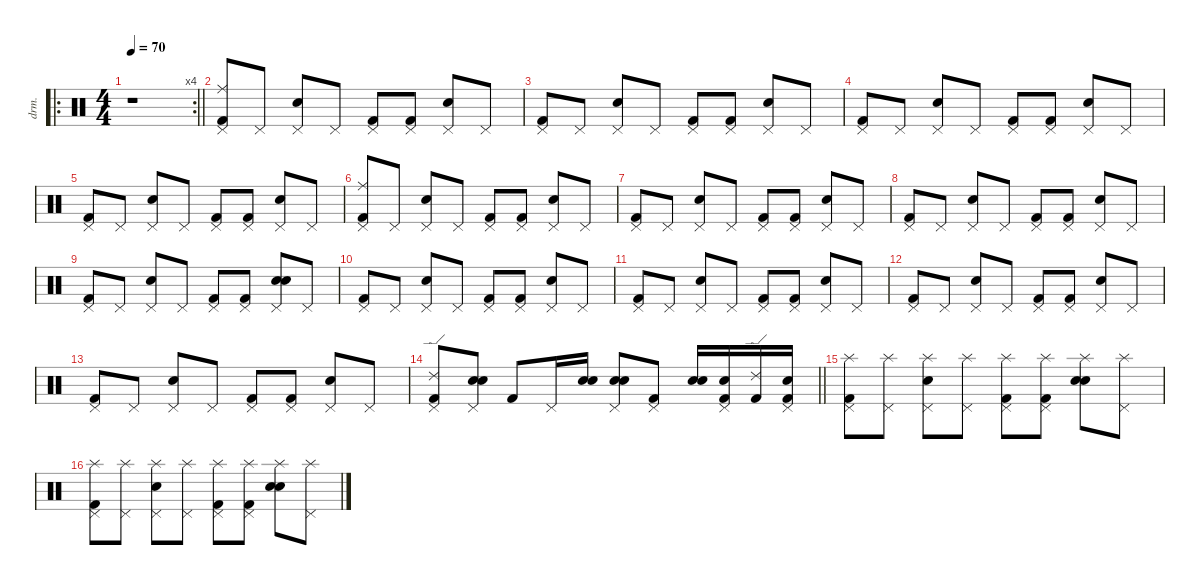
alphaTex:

\defaultSystemsLayout 4
\hideDynamics
\bracketExtendMode nobrackets
\otherSystemsTrackNameOrientation horizontal
\track ("Drums" "drm.") {defaultSystemsLayout 4 instrument percussion}
\staff {score}
\articulation defaults
\ro
\rc 4
\ts (4 4)
\beaming (8 2 2 2 2)
\tempo 70
\clef neutral
\barLineRight lightlight
\ks c
r.1{dy f beam Down} |
("Pedal Hi-Hat (hit)" "Ride (middle)" "Kick (hit) 2").8{beam Up} "Pedal Hi-Hat (hit)".8{beam Up} ("Pedal Hi-Hat (hit)" "Snare (hit) 2").8{beam Up} "Pedal Hi-Hat (hit)".8{beam Up} ("Pedal Hi-Hat (hit)" "Kick (hit) 2").8{beam Up} ("Pedal Hi-Hat (hit)" "Kick (hit) 2").8{beam Up} ("Pedal Hi-Hat (hit)" "Snare (hit) 2").8{beam Up} "Pedal Hi-Hat (hit)".8{beam Up} |
("Pedal Hi-Hat (hit)" "Kick (hit) 2").8{beam Up} "Pedal Hi-Hat (hit)".8{beam Up} ("Pedal Hi-Hat (hit)" "Snare (hit) 2").8{beam Up} "Pedal Hi-Hat (hit)".8{beam Up} ("Pedal Hi-Hat (hit)" "Kick (hit) 2").8{beam Up} ("Pedal Hi-Hat (hit)" "Kick (hit) 2").8{beam Up} ("Pedal Hi-Hat (hit)" "Snare (hit) 2").8{beam Up} "Pedal Hi-Hat (hit)".8{beam Up} |
("Pedal Hi-Hat (hit)" "Kick (hit) 2").8{beam Up} "Pedal Hi-Hat (hit)".8{beam Up} ("Pedal Hi-Hat (hit)" "Snare (hit) 2").8{beam Up} "Pedal Hi-Hat (hit)".8{beam Up} ("Pedal Hi-Hat (hit)" "Kick (hit) 2").8{beam Up} ("Pedal Hi-Hat (hit)" "Kick (hit) 2").8{beam Up} ("Pedal Hi-Hat (hit)" "Snare (hit) 2").8{beam Up} "Pedal Hi-Hat (hit)".8{beam Up} |
("Pedal Hi-Hat (hit)" "Kick (hit) 2").8{beam Up} "Pedal Hi-Hat (hit)".8{beam Up} ("Pedal Hi-Hat (hit)" "Snare (hit) 2").8{beam Up} "Pedal Hi-Hat (hit)".8{beam Up} ("Pedal Hi-Hat (hit)" "Kick (hit) 2").8{beam Up} ("Pedal Hi-Hat (hit)" "Kick (hit) 2").8{beam Up} ("Pedal Hi-Hat (hit)" "Snare (hit) 2").8{beam Up} "Pedal Hi-Hat (hit)".8{beam Up} |
("Pedal Hi-Hat (hit)" "Ride (middle)" "Kick (hit) 2").8{beam Up} "Pedal Hi-Hat (hit)".8{beam Up} ("Pedal Hi-Hat (hit)" "Snare (hit) 2").8{beam Up} "Pedal Hi-Hat (hit)".8{beam Up} ("Pedal Hi-Hat (hit)" "Kick (hit) 2").8{beam Up} ("Pedal Hi-Hat (hit)" "Kick (hit) 2").8{beam Up} ("Pedal Hi-Hat (hit)" "Snare (hit) 2").8{beam Up} "Pedal Hi-Hat (hit)".8{beam Up} |
("Pedal Hi-Hat (hit)" "Kick (hit) 2").8{beam Up} "Pedal Hi-Hat (hit)".8{beam Up} ("Pedal Hi-Hat (hit)" "Snare (hit) 2").8{beam Up} "Pedal Hi-Hat (hit)".8{beam Up} ("Pedal Hi-Hat (hit)" "Kick (hit) 2").8{beam Up} ("Pedal Hi-Hat (hit)" "Kick (hit) 2").8{beam Up} ("Pedal Hi-Hat (hit)" "Snare (hit) 2").8{beam Up} "Pedal Hi-Hat (hit)".8{beam Up} |
("Pedal Hi-Hat (hit)" "Kick (hit) 2").8{beam Up} "Pedal Hi-Hat (hit)".8{beam Up} ("Pedal Hi-Hat (hit)" "Snare (hit) 2").8{beam Up} "Pedal Hi-Hat (hit)".8{beam Up} ("Pedal Hi-Hat (hit)" "Kick (hit) 2").8{beam Up} ("Pedal Hi-Hat (hit)" "Kick (hit) 2").8{beam Up} ("Pedal Hi-Hat (hit)" "Snare (hit) 2").8{beam Up} "Pedal Hi-Hat (hit)".8{beam Up} |
("Pedal Hi-Hat (hit)" "Kick (hit) 2").8{beam Up} "Pedal Hi-Hat (hit)".8{beam Up} ("Pedal Hi-Hat (hit)" "Snare (hit) 2").8{beam Up} "Pedal Hi-Hat (hit)".8{beam Up} ("Pedal Hi-Hat (hit)" "Kick (hit) 2").8{beam Up} ("Pedal Hi-Hat (hit)" "Kick (hit) 2").8{beam Up} ("Pedal Hi-Hat (hit)" "Snare (hit) 2" "Snare (hit) 2").8{beam Up} "Pedal Hi-Hat (hit)".8{beam Up} |
("Pedal Hi-Hat (hit)" "Kick (hit) 2").8{beam Up} "Pedal Hi-Hat (hit)".8{beam Up} ("Pedal Hi-Hat (hit)" "Snare (hit) 2").8{beam Up} "Pedal Hi-Hat (hit)".8{beam Up} ("Pedal Hi-Hat (hit)" "Kick (hit) 2").8{beam Up} ("Pedal Hi-Hat (hit)" "Kick (hit) 2").8{beam Up} ("Pedal Hi-Hat (hit)" "Snare (hit) 2").8{beam Up} "Pedal Hi-Hat (hit)".8{beam Up} |
("Pedal Hi-Hat (hit)" "Kick (hit) 2").8{beam Up} "Pedal Hi-Hat (hit)".8{beam Up} ("Pedal Hi-Hat (hit)" "Snare (hit) 2").8{beam Up} "Pedal Hi-Hat (hit)".8{beam Up} ("Pedal Hi-Hat (hit)" "Kick (hit) 2").8{beam Up} ("Pedal Hi-Hat (hit)" "Kick (hit) 2").8{beam Up} ("Pedal Hi-Hat (hit)" "Snare (hit) 2").8{beam Up} "Pedal Hi-Hat (hit)".8{beam Up} |
("Pedal Hi-Hat (hit)" "Kick (hit) 2").8{beam Up} "Pedal Hi-Hat (hit)".8{beam Up} ("Pedal Hi-Hat (hit)" "Snare (hit) 2").8{beam Up} "Pedal Hi-Hat (hit)".8{beam Up} ("Pedal Hi-Hat (hit)" "Kick (hit) 2").8{beam Up} ("Pedal Hi-Hat (hit)" "Kick (hit) 2").8{beam Up} ("Pedal Hi-Hat (hit)" "Snare (hit) 2").8{beam Up} "Pedal Hi-Hat (hit)".8{beam Up} |
("Pedal Hi-Hat (hit)" "Kick (hit) 2").8{beam Up} "Pedal Hi-Hat (hit)".8{beam Up} ("Pedal Hi-Hat (hit)" "Snare (hit) 2").8{beam Up} "Pedal Hi-Hat (hit)".8{beam Up} ("Pedal Hi-Hat (hit)" "Kick (hit) 2").8{beam Up} ("Pedal Hi-Hat (hit)" "Kick (hit) 2").8{beam Up} ("Pedal Hi-Hat (hit)" "Snare (hit) 2").8{beam Up} "Pedal Hi-Hat (hit)".8{beam Up} |
\barLineRight lightlight
("Ride (edge) 2" "Pedal Hi-Hat (hit)" "Kick (hit) 2").8{beam Up} ("Pedal Hi-Hat (hit)" "Snare (hit) 2" "Snare (hit) 2").8{beam Up} "Kick (hit) 2".8{beam Up} "Pedal Hi-Hat (hit)".16{beam Up} ("Snare (hit) 2" "Snare (hit) 2").16{beam Up} ("Pedal Hi-Hat (hit)" "Snare (hit) 2" "Snare (hit) 2").8{beam Up} ("Pedal Hi-Hat (hit)" "Kick (hit) 2").8{beam Up} ("Snare (hit) 2" "Snare (hit) 2").16{beam Up} ("Pedal Hi-Hat (hit)" "Snare (hit) 2" "Kick (hit) 2").16{beam Up} ("Ride (edge) 2" "Kick (hit) 2").16{beam Up} ("Pedal Hi-Hat (hit)" "Snare (hit) 2" "Kick (hit) 2").16{beam Up} |
("Splash (hit)" "Pedal Hi-Hat (hit)" "Kick (hit) 2").8{dy mf beam Down} ("Splash (hit)" "Pedal Hi-Hat (hit)").8{beam Down} ("Splash (hit)" "Pedal Hi-Hat (hit)" "Snare (hit) 2").8{beam Down} ("Splash (hit)" "Pedal Hi-Hat (hit)").8{beam Down} ("Splash (hit)" "Pedal Hi-Hat (hit)" "Kick (hit) 2").8{beam Down} ("Splash (hit)" "Pedal Hi-Hat (hit)" "Kick (hit) 2").8{beam Down} ("Splash (hit)" "Snare (hit) 2" "Snare (hit) 2").8{beam Down} ("Splash (hit)" "Pedal Hi-Hat (hit)").8{beam Down} |
("Splash (hit)" "Pedal Hi-Hat (hit)" "Kick (hit) 2").8{beam Down} ("Splash (hit)" "Pedal Hi-Hat (hit)").8{beam Down} ("Splash (hit)" "Pedal Hi-Hat (hit)" "Snare (hit) 2").8{beam Down} ("Splash (hit)" "Pedal Hi-Hat (hit)").8{beam Down} ("Splash (hit)" "Pedal Hi-Hat (hit)" "Kick (hit) 2").8{beam Down} ("Splash (hit)" "Pedal Hi-Hat (hit)" "Kick (hit) 2").8{beam Down} ("Splash (hit)" "Snare (hit) 2" "Snare (hit) 2").8{beam Down} ("Splash (hit)" "Pedal Hi-Hat (hit)").8{beam Down}
